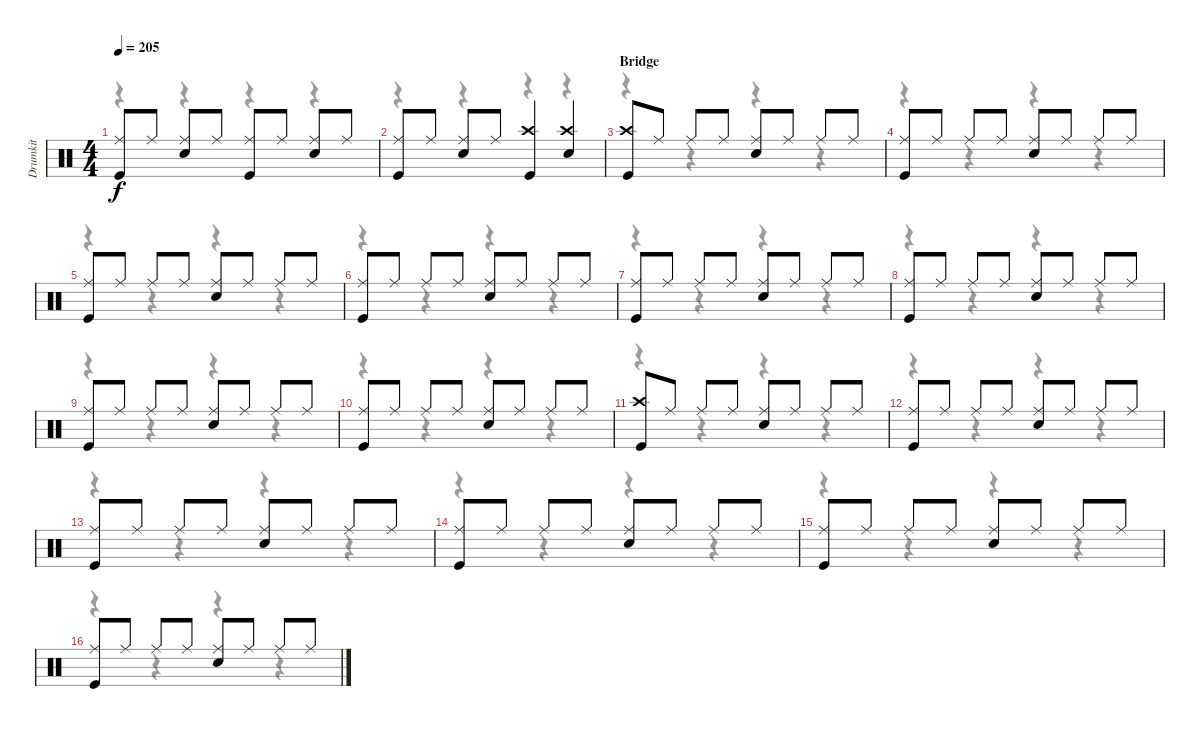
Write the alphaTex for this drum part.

\track ("Drumkit" "Drumkit") {instrument percussion}
\staff {score}
\articulation defaults
\voice
\ts (4 4)
\tempo 205
\clef neutral
\ks c
("Ride (middle)" "Kick (hit)").8{dy f} "Ride (middle)".8 ("Ride (middle)" "Snare (hit) 2").8 "Ride (middle)".8 ("Ride (middle)" "Kick (hit)").8 "Ride (middle)".8 ("Ride (middle)" "Snare (hit) 2").8 "Ride (middle)".8 |
("Ride (middle)" "Kick (hit)").8 "Ride (middle)".8 ("Ride (middle)" "Snare (hit) 2").8 "Ride (middle)".8 ("Crash high (hit)" "Kick (hit)").4 ("Crash high (hit)" "Snare (hit) 2").4 |
\section ("" "Bridge")
("Crash high (hit)" "Kick (hit)").8 "Ride (middle)".8 "Ride (middle)".8 "Ride (middle)".8 ("Ride (middle)" "Snare (hit) 2").8 "Ride (middle)".8 "Ride (middle)".8 "Ride (middle)".8 |
("Ride (middle)" "Kick (hit)").8 "Ride (middle)".8 "Ride (middle)".8 "Ride (middle)".8 ("Ride (middle)" "Snare (hit) 2").8 "Ride (middle)".8 "Ride (middle)".8 "Ride (middle)".8 |
("Ride (middle)" "Kick (hit)").8 "Ride (middle)".8 "Ride (middle)".8 "Ride (middle)".8 ("Ride (middle)" "Snare (hit) 2").8 "Ride (middle)".8 "Ride (middle)".8 "Ride (middle)".8 |
("Ride (middle)" "Kick (hit)").8 "Ride (middle)".8 "Ride (middle)".8 "Ride (middle)".8 ("Ride (middle)" "Snare (hit) 2").8 "Ride (middle)".8 "Ride (middle)".8 "Ride (middle)".8 |
("Ride (middle)" "Kick (hit)").8 "Ride (middle)".8 "Ride (middle)".8 "Ride (middle)".8 ("Ride (middle)" "Snare (hit) 2").8 "Ride (middle)".8 "Ride (middle)".8 "Ride (middle)".8 |
("Ride (middle)" "Kick (hit)").8 "Ride (middle)".8 "Ride (middle)".8 "Ride (middle)".8 ("Ride (middle)" "Snare (hit) 2").8 "Ride (middle)".8 "Ride (middle)".8 "Ride (middle)".8 |
("Ride (middle)" "Kick (hit)").8 "Ride (middle)".8 "Ride (middle)".8 "Ride (middle)".8 ("Ride (middle)" "Snare (hit) 2").8 "Ride (middle)".8 "Ride (middle)".8 "Ride (middle)".8 |
("Ride (middle)" "Kick (hit)").8 "Ride (middle)".8 "Ride (middle)".8 "Ride (middle)".8 ("Ride (middle)" "Snare (hit) 2").8 "Ride (middle)".8 "Ride (middle)".8 "Ride (middle)".8 |
("Crash high (hit)" "Kick (hit)").8 "Ride (middle)".8 "Ride (middle)".8 "Ride (middle)".8 ("Ride (middle)" "Snare (hit) 2").8 "Ride (middle)".8 "Ride (middle)".8 "Ride (middle)".8 |
("Ride (middle)" "Kick (hit)").8 "Ride (middle)".8 "Ride (middle)".8 "Ride (middle)".8 ("Ride (middle)" "Snare (hit) 2").8 "Ride (middle)".8 "Ride (middle)".8 "Ride (middle)".8 |
("Ride (middle)" "Kick (hit)").8 "Ride (middle)".8 "Ride (middle)".8 "Ride (middle)".8 ("Ride (middle)" "Snare (hit) 2").8 "Ride (middle)".8 "Ride (middle)".8 "Ride (middle)".8 |
("Ride (middle)" "Kick (hit)").8 "Ride (middle)".8 "Ride (middle)".8 "Ride (middle)".8 ("Ride (middle)" "Snare (hit) 2").8 "Ride (middle)".8 "Ride (middle)".8 "Ride (middle)".8 |
("Ride (middle)" "Kick (hit)").8 "Ride (middle)".8 "Ride (middle)".8 "Ride (middle)".8 ("Ride (middle)" "Snare (hit) 2").8 "Ride (middle)".8 "Ride (middle)".8 "Ride (middle)".8 |
("Ride (middle)" "Kick (hit)").8 "Ride (middle)".8 "Ride (middle)".8 "Ride (middle)".8 ("Ride (middle)" "Snare (hit) 2").8 "Ride (middle)".8 "Ride (middle)".8 "Ride (middle)".8
\voice
\clef neutral
\ottava regular
\simile none
\ks c
r.4{dy f} r.4 r.4 r.4 |
r.4 r.4 r.4 r.4 |
r.4 r.4 r.4 r.4 |
r.4 r.4 r.4 r.4 |
r.4 r.4 r.4 r.4 |
r.4 r.4 r.4 r.4 |
r.4 r.4 r.4 r.4 |
r.4 r.4 r.4 r.4 |
r.4 r.4 r.4 r.4 |
r.4 r.4 r.4 r.4 |
r.4 r.4 r.4 r.4 |
r.4 r.4 r.4 r.4 |
r.4 r.4 r.4 r.4 |
r.4 r.4 r.4 r.4 |
r.4 r.4 r.4 r.4 |
r.4 r.4 r.4 r.4
